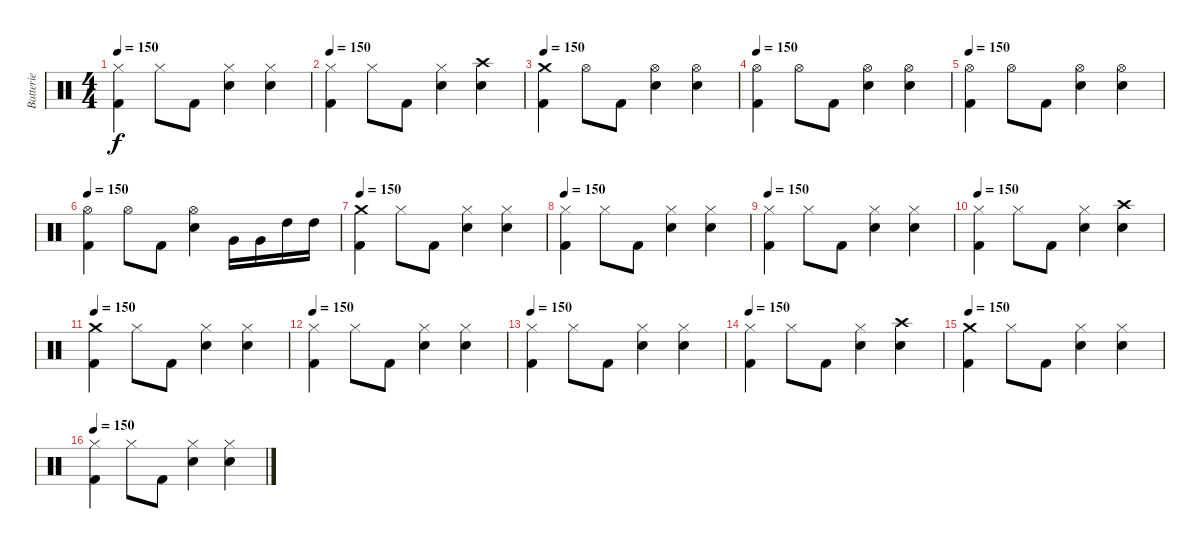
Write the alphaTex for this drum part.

\track ("Batterie" "Batterie") {instrument percussion}
\staff {score}
\articulation defaults
\ts (4 4)
\tempo 150
\clef neutral
\ks c
("Hi-Hat (closed)" "Kick (hit) 2").4{dy f} "Hi-Hat (closed)".8 "Kick (hit) 2".8 ("Hi-Hat (closed)" "Snare (hit) 2").4 ("Hi-Hat (closed)" "Snare (hit) 2").4 |
\tempo 150
("Hi-Hat (closed)" "Kick (hit) 2").4 "Hi-Hat (closed)".8 "Kick (hit) 2".8 ("Hi-Hat (closed)" "Snare (hit) 2").4 ("Crash high (hit)" "Snare (hit) 2").4 |
\tempo 150
("Crash medium (hit)" "Kick (hit) 2").4 "Hi-Hat (open)".8 "Kick (hit) 2".8 ("Hi-Hat (open)" "Snare (hit) 2").4 ("Hi-Hat (open)" "Snare (hit) 2").4 |
\tempo 150
("Hi-Hat (open)" "Kick (hit) 2").4 "Hi-Hat (open)".8 "Kick (hit) 2".8 ("Hi-Hat (open)" "Snare (hit) 2").4 ("Hi-Hat (open)" "Snare (hit) 2").4 |
\tempo 150
("Hi-Hat (open)" "Kick (hit) 2").4 "Hi-Hat (open)".8 "Kick (hit) 2".8 ("Hi-Hat (open)" "Snare (hit) 2").4 ("Hi-Hat (open)" "Snare (hit) 2").4 |
\tempo 150
("Hi-Hat (open)" "Kick (hit) 2").4 "Hi-Hat (open)".8 "Kick (hit) 2".8 ("Hi-Hat (open)" "Snare (hit) 2").4 "Very Low Tom (hit)".16 "Very Low Tom (hit)".16 "High Tom (hit)".16 "High Tom (hit)".16 |
\tempo 150
("Crash medium (hit)" "Kick (hit) 2").4 "Hi-Hat (closed)".8 "Kick (hit) 2".8 ("Hi-Hat (closed)" "Snare (hit) 2").4 ("Hi-Hat (closed)" "Snare (hit) 2").4 |
\tempo 150
("Hi-Hat (closed)" "Kick (hit) 2").4 "Hi-Hat (closed)".8 "Kick (hit) 2".8 ("Hi-Hat (closed)" "Snare (hit) 2").4 ("Hi-Hat (closed)" "Snare (hit) 2").4 |
\tempo 150
("Hi-Hat (closed)" "Kick (hit) 2").4 "Hi-Hat (closed)".8 "Kick (hit) 2".8 ("Hi-Hat (closed)" "Snare (hit) 2").4 ("Hi-Hat (closed)" "Snare (hit) 2").4 |
\tempo 150
("Hi-Hat (closed)" "Kick (hit) 2").4 "Hi-Hat (closed)".8 "Kick (hit) 2".8 ("Hi-Hat (closed)" "Snare (hit) 2").4 ("Crash high (hit)" "Snare (hit) 2").4 |
\tempo 150
("Crash medium (hit)" "Kick (hit) 2").4 "Hi-Hat (closed)".8 "Kick (hit) 2".8 ("Hi-Hat (closed)" "Snare (hit) 2").4 ("Hi-Hat (closed)" "Snare (hit) 2").4 |
\tempo 150
("Hi-Hat (closed)" "Kick (hit) 2").4 "Hi-Hat (closed)".8 "Kick (hit) 2".8 ("Hi-Hat (closed)" "Snare (hit) 2").4 ("Hi-Hat (closed)" "Snare (hit) 2").4 |
\tempo 150
("Hi-Hat (closed)" "Kick (hit) 2").4 "Hi-Hat (closed)".8 "Kick (hit) 2".8 ("Hi-Hat (closed)" "Snare (hit) 2").4 ("Hi-Hat (closed)" "Snare (hit) 2").4 |
\tempo 150
("Hi-Hat (closed)" "Kick (hit) 2").4 "Hi-Hat (closed)".8 "Kick (hit) 2".8 ("Hi-Hat (closed)" "Snare (hit) 2").4 ("Crash high (hit)" "Snare (hit) 2").4 |
\tempo 150
("Crash medium (hit)" "Kick (hit) 2").4 "Hi-Hat (closed)".8 "Kick (hit) 2".8 ("Hi-Hat (closed)" "Snare (hit) 2").4 ("Hi-Hat (closed)" "Snare (hit) 2").4 |
\tempo 150
("Hi-Hat (closed)" "Kick (hit) 2").4 "Hi-Hat (closed)".8 "Kick (hit) 2".8 ("Hi-Hat (closed)" "Snare (hit) 2").4 ("Hi-Hat (closed)" "Snare (hit) 2").4
